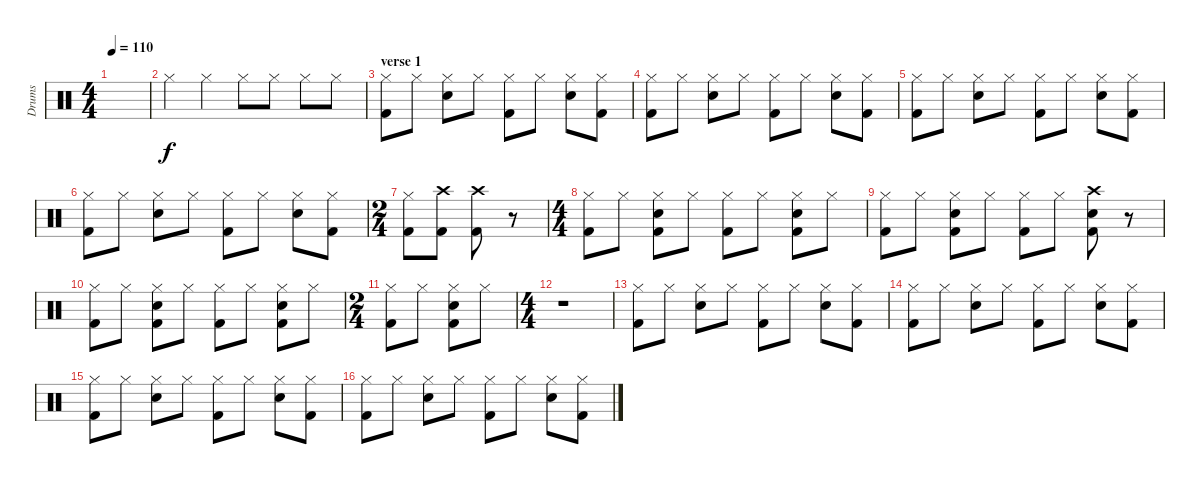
\track ("Drums" "Drums") {instrument percussion}
\staff {score}
\articulation defaults
\ts (4 4)
\tempo 110
\clef neutral
\ks c
|
"Hi-Hat (closed)".4 "Hi-Hat (closed)".4 "Hi-Hat (closed)".8 "Hi-Hat (closed)".8 "Hi-Hat (closed)".8 "Hi-Hat (closed)".8 |
\section ("" "verse 1")
("Hi-Hat (closed)" "Kick (hit) 2").8 "Hi-Hat (closed)".8 ("Hi-Hat (closed)" "Snare (hit) 2").8 "Hi-Hat (closed)".8 ("Hi-Hat (closed)" "Kick (hit) 2").8 "Hi-Hat (closed)".8 ("Hi-Hat (closed)" "Snare (hit) 2").8 ("Hi-Hat (closed)" "Kick (hit) 2").8 |
("Hi-Hat (closed)" "Kick (hit) 2").8 "Hi-Hat (closed)".8 ("Hi-Hat (closed)" "Snare (hit) 2").8 "Hi-Hat (closed)".8 ("Hi-Hat (closed)" "Kick (hit) 2").8 "Hi-Hat (closed)".8 ("Hi-Hat (closed)" "Snare (hit) 2").8 ("Hi-Hat (closed)" "Kick (hit) 2").8 |
("Hi-Hat (closed)" "Kick (hit) 2").8 "Hi-Hat (closed)".8 ("Hi-Hat (closed)" "Snare (hit) 2").8 "Hi-Hat (closed)".8 ("Hi-Hat (closed)" "Kick (hit) 2").8 "Hi-Hat (closed)".8 ("Hi-Hat (closed)" "Snare (hit) 2").8 ("Hi-Hat (closed)" "Kick (hit) 2").8 |
("Hi-Hat (closed)" "Kick (hit) 2").8 "Hi-Hat (closed)".8 ("Hi-Hat (closed)" "Snare (hit) 2").8 "Hi-Hat (closed)".8 ("Hi-Hat (closed)" "Kick (hit) 2").8 "Hi-Hat (closed)".8 ("Hi-Hat (closed)" "Snare (hit) 2").8 ("Hi-Hat (closed)" "Kick (hit) 2").8 |
\ts (2 4)
("Hi-Hat (closed)" "Kick (hit) 2").8 ("Crash high (hit)" "Kick (hit) 2").8 ("Crash high (hit)" "Kick (hit) 2").8 r.8 |
\ts (4 4)
("Hi-Hat (closed)" "Kick (hit) 2").8 "Hi-Hat (closed)".8 ("Hi-Hat (closed)" "Snare (hit) 2" "Kick (hit) 2").8 "Hi-Hat (closed)".8 ("Hi-Hat (closed)" "Kick (hit) 2").8 "Hi-Hat (closed)".8 ("Hi-Hat (closed)" "Snare (hit) 2" "Kick (hit) 2").8 "Hi-Hat (closed)".8 |
("Hi-Hat (closed)" "Kick (hit) 2").8 "Hi-Hat (closed)".8 ("Hi-Hat (closed)" "Snare (hit) 2" "Kick (hit) 2").8 "Hi-Hat (closed)".8 ("Hi-Hat (closed)" "Kick (hit) 2").8 "Hi-Hat (closed)".8 ("Crash high (hit)" "Snare (hit) 2" "Kick (hit) 2").8 r.8 |
("Hi-Hat (closed)" "Kick (hit) 2").8 "Hi-Hat (closed)".8 ("Hi-Hat (closed)" "Snare (hit) 2" "Kick (hit) 2").8 "Hi-Hat (closed)".8 ("Hi-Hat (closed)" "Kick (hit) 2").8 "Hi-Hat (closed)".8 ("Hi-Hat (closed)" "Snare (hit) 2" "Kick (hit) 2").8 "Hi-Hat (closed)".8 |
\ts (2 4)
("Hi-Hat (closed)" "Kick (hit) 2").8 "Hi-Hat (closed)".8 ("Hi-Hat (closed)" "Snare (hit) 2" "Kick (hit) 2").8 "Hi-Hat (closed)".8 |
\ts (4 4)
r.1 |
("Hi-Hat (closed)" "Kick (hit) 2").8 "Hi-Hat (closed)".8 ("Hi-Hat (closed)" "Snare (hit) 2").8 "Hi-Hat (closed)".8 ("Hi-Hat (closed)" "Kick (hit) 2").8 "Hi-Hat (closed)".8 ("Hi-Hat (closed)" "Snare (hit) 2").8 ("Hi-Hat (closed)" "Kick (hit) 2").8 |
("Hi-Hat (closed)" "Kick (hit) 2").8 "Hi-Hat (closed)".8 ("Hi-Hat (closed)" "Snare (hit) 2").8 "Hi-Hat (closed)".8 ("Hi-Hat (closed)" "Kick (hit) 2").8 "Hi-Hat (closed)".8 ("Hi-Hat (closed)" "Snare (hit) 2").8 ("Hi-Hat (closed)" "Kick (hit) 2").8 |
("Hi-Hat (closed)" "Kick (hit) 2").8 "Hi-Hat (closed)".8 ("Hi-Hat (closed)" "Snare (hit) 2").8 "Hi-Hat (closed)".8 ("Hi-Hat (closed)" "Kick (hit) 2").8 "Hi-Hat (closed)".8 ("Hi-Hat (closed)" "Snare (hit) 2").8 ("Hi-Hat (closed)" "Kick (hit) 2").8 |
("Hi-Hat (closed)" "Kick (hit) 2").8 "Hi-Hat (closed)".8 ("Hi-Hat (closed)" "Snare (hit) 2").8 "Hi-Hat (closed)".8 ("Hi-Hat (closed)" "Kick (hit) 2").8 "Hi-Hat (closed)".8 ("Hi-Hat (closed)" "Snare (hit) 2").8 ("Hi-Hat (closed)" "Kick (hit) 2").8
